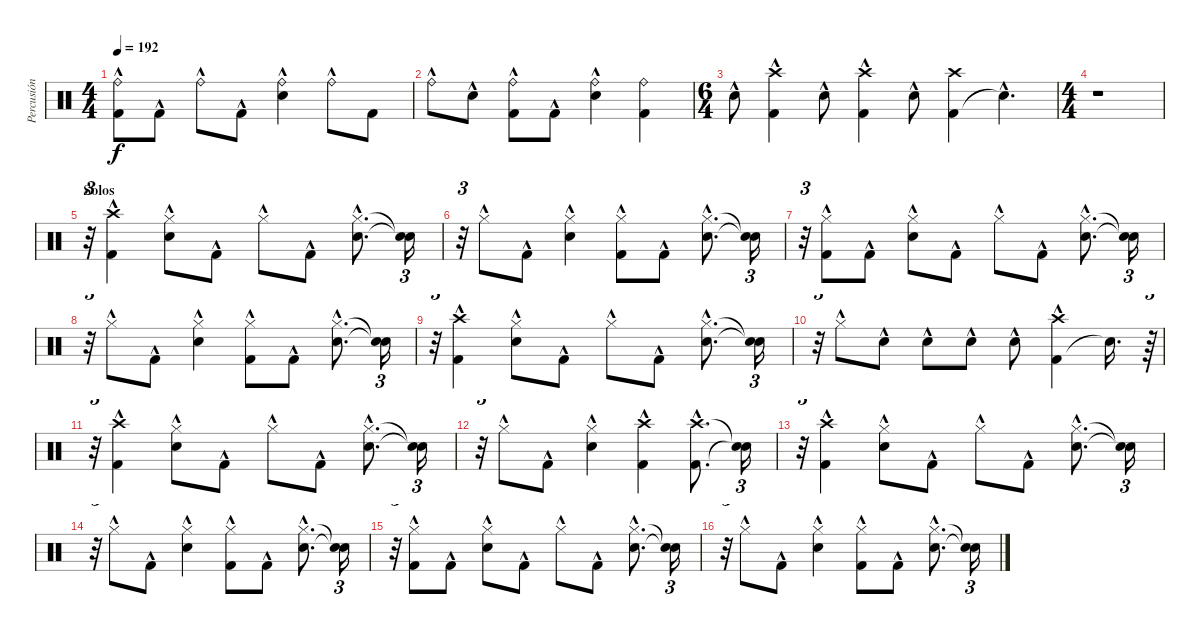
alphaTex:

\track ("Percusión" "Percusión") {instrument percussion}
\staff {score}
\articulation defaults
\ts (4 4)
\tempo 192
\clef neutral
\ks c
("Kick (hit) 2"{hac} "Ride (bell)"{hac}).8{dy f} "Kick (hit) 2"{hac}.8 "Ride (bell)"{hac}.8 "Kick (hit) 2"{hac}.8 ("Electric Snare (hit)"{hac} "Ride (bell)"{hac}).4 "Ride (bell)"{hac}.8 "Kick (hit) 2".8 |
"Ride (bell)"{hac}.8 "Electric Snare (hit)"{hac}.8 ("Kick (hit) 2"{hac} "Ride (bell)"{hac}).8 "Kick (hit) 2"{hac}.8 ("Electric Snare (hit)"{hac} "Ride (bell)"{hac}).4 ("Kick (hit) 2" "Ride (bell)").4 |
\ts (6 4)
"Electric Snare (hit)"{hac}.8 ("Kick (hit) 2"{hac} "Crash high (hit)"{hac}).4 "Electric Snare (hit)"{hac}.8 ("Crash high (hit)"{hac} "Kick (hit) 2"{hac}).4 "Electric Snare (hit)"{hac}.8 ("Kick (hit) 2" "Crash high (hit)").4 "Snare (hit)"{hac t}.4{d} |
\ts (4 4)
r.1 |
\section ("" "Solos")
r.32{tu (3 2)} ("Crash high (hit)"{hac} "Kick (hit) 2"{hac}).4 ("Hi-Hat (closed)"{hac} "Snare (hit) 2"{hac}).8 "Kick (hit) 2"{hac}.8 "Hi-Hat (closed)"{hac}.8 "Kick (hit) 2"{hac}.8 ("Snare (hit) 2"{hac} "Hi-Hat (closed)"{hac}).8{d} ("Snare (hit)"{t} "Snare (hit)"{t}).16{tu (3 2)} |
r.32{tu (3 2)} "Hi-Hat (closed)"{hac}.8 "Kick (hit) 2"{hac}.8 ("Snare (hit) 2"{hac} "Hi-Hat (closed)"{hac}).4 ("Kick (hit) 2"{hac} "Hi-Hat (closed)"{hac}).8 "Kick (hit) 2"{hac}.8 ("Hi-Hat (closed)"{hac} "Snare (hit) 2"{hac}).8{d} ("Snare (hit)"{t} "Snare (hit)"{t}).16{tu (3 2)} |
r.32{tu (3 2)} ("Kick (hit) 2"{hac} "Hi-Hat (closed)"{hac}).8 "Kick (hit) 2"{hac}.8 ("Snare (hit) 2"{hac} "Hi-Hat (closed)"{hac}).8 "Kick (hit) 2"{hac}.8 "Hi-Hat (closed)"{hac}.8 "Kick (hit) 2"{hac}.8 ("Hi-Hat (closed)"{hac} "Snare (hit) 2"{hac}).8{d} ("Snare (hit)"{t} "Snare (hit)"{t}).16{tu (3 2)} |
r.32{tu (3 2)} "Hi-Hat (closed)"{hac}.8 "Kick (hit) 2"{hac}.8 ("Snare (hit) 2"{hac} "Hi-Hat (closed)"{hac}).4 ("Kick (hit) 2"{hac} "Hi-Hat (closed)"{hac}).8 "Kick (hit) 2"{hac}.8 ("Snare (hit) 2"{hac} "Hi-Hat (closed)"{hac}).8{d} ("Snare (hit)"{t} "Snare (hit)"{t}).16{tu (3 2)} |
r.32{tu (3 2)} ("Crash high (hit)"{hac} "Kick (hit) 2"{hac}).4 ("Hi-Hat (closed)"{hac} "Snare (hit) 2"{hac}).8 "Kick (hit) 2"{hac}.8 "Hi-Hat (closed)"{hac}.8 "Kick (hit) 2"{hac}.8 ("Snare (hit) 2"{hac} "Hi-Hat (closed)"{hac}).8{d} ("Snare (hit)"{t} "Snare (hit)"{t}).16{tu (3 2)} |
r.32{tu (3 2)} "Hi-Hat (closed)"{hac}.8 "Snare (hit) 2"{hac}.8 "Snare (hit) 2"{hac}.8 "Snare (hit) 2"{hac}.8 "Snare (hit) 2"{hac}.8 ("Kick (hit) 2"{hac} "Crash high (hit)").4 "Snare (hit)"{t}.16{d} r.64{tu (3 2)} |
r.32{tu (3 2)} ("Crash high (hit)"{hac} "Kick (hit) 2"{hac}).4 ("Hi-Hat (closed)"{hac} "Snare (hit) 2"{hac}).8 "Kick (hit) 2"{hac}.8 "Hi-Hat (closed)"{hac}.8 "Kick (hit) 2"{hac}.8 ("Snare (hit) 2"{hac} "Hi-Hat (closed)"{hac}).8{d} ("Snare (hit)"{t} "Snare (hit)"{t}).16{tu (3 2)} |
r.32{tu (3 2)} "Hi-Hat (closed)"{hac}.8 "Kick (hit) 2"{hac}.8 ("Snare (hit) 2"{hac} "Hi-Hat (closed)"{hac}).4 ("Crash high (hit)"{hac} "Kick (hit) 2"{hac}).4 ("Kick (hit) 2"{hac} "Crash high (hit)"{hac}).8{d} ("Snare (hit)"{t} "Snare (hit)"{t}).16{tu (3 2)} |
r.32{tu (3 2)} ("Crash high (hit)"{hac} "Kick (hit) 2"{hac}).4 ("Snare (hit) 2"{hac} "Hi-Hat (closed)"{hac}).8 "Kick (hit) 2"{hac}.8 "Hi-Hat (closed)"{hac}.8 "Kick (hit) 2"{hac}.8 ("Hi-Hat (closed)"{hac} "Snare (hit) 2"{hac}).8{d} ("Snare (hit)"{t} "Snare (hit)"{t}).16{tu (3 2)} |
r.32{tu (3 2)} "Hi-Hat (closed)"{hac}.8 "Kick (hit) 2"{hac}.8 ("Hi-Hat (closed)"{hac} "Snare (hit) 2"{hac}).4 ("Hi-Hat (closed)"{hac} "Kick (hit) 2"{hac}).8 "Kick (hit) 2"{hac}.8 ("Snare (hit) 2"{hac} "Hi-Hat (closed)"{hac}).8{d} ("Snare (hit)"{t} "Snare (hit)"{t}).16{tu (3 2)} |
r.32{tu (3 2)} ("Kick (hit) 2"{hac} "Hi-Hat (closed)"{hac}).8 "Kick (hit) 2"{hac}.8 ("Hi-Hat (closed)"{hac} "Snare (hit) 2"{hac}).8 "Kick (hit) 2"{hac}.8 "Hi-Hat (closed)"{hac}.8 "Kick (hit) 2"{hac}.8 ("Hi-Hat (closed)"{hac} "Snare (hit) 2"{hac}).8{d} ("Snare (hit)"{t} "Snare (hit)"{t}).16{tu (3 2)} |
r.32{tu (3 2)} "Hi-Hat (closed)"{hac}.8 "Kick (hit) 2"{hac}.8 ("Hi-Hat (closed)"{hac} "Snare (hit) 2"{hac}).4 ("Hi-Hat (closed)"{hac} "Kick (hit) 2"{hac}).8 "Kick (hit) 2"{hac}.8 ("Hi-Hat (closed)"{hac} "Snare (hit) 2"{hac}).8{d} ("Snare (hit)"{t} "Snare (hit)"{t}).16{tu (3 2)}
